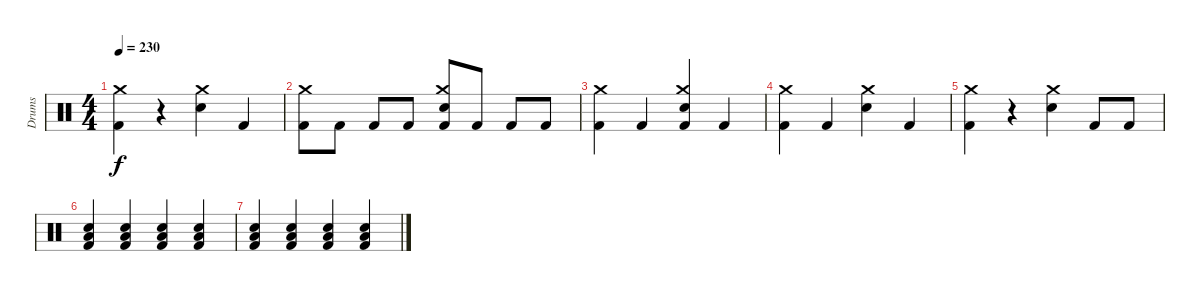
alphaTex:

\track ("Drums" "Drums") {instrument percussion}
\staff {score}
\articulation defaults
\ts (4 4)
\tempo 230
\clef neutral
\ks c
("Kick (hit) 2" "Crash medium (hit)").4{dy f} r.4 ("Electric Snare (hit)" "Crash medium (hit)").4 "Kick (hit) 2".4 |
("Kick (hit) 2" "Crash medium (hit)").8 "Kick (hit) 2".8 "Kick (hit) 2".8 "Kick (hit) 2".8 ("Kick (hit) 2" "Electric Snare (hit)" "Crash medium (hit)").8 "Kick (hit) 2".8 "Kick (hit) 2".8 "Kick (hit) 2".8 |
("Kick (hit) 2" "Crash medium (hit)").4 "Kick (hit) 2".4 ("Kick (hit) 2" "Electric Snare (hit)" "Crash medium (hit)").4 "Kick (hit) 2".4 |
("Kick (hit) 2" "Crash medium (hit)").4 "Kick (hit) 2".4 ("Electric Snare (hit)" "Crash medium (hit)").4 "Kick (hit) 2".4 |
("Kick (hit) 2" "Crash medium (hit)").4 r.4 ("Electric Snare (hit)" "Crash medium (hit)").4 "Kick (hit) 2".8 "Kick (hit) 2".8 |
("Kick (hit) 2" "Electric Snare (hit)" "Low Tom (hit)").4 ("Kick (hit) 2" "Electric Snare (hit)" "Low Tom (hit)").4 ("Kick (hit) 2" "Electric Snare (hit)" "Low Tom (hit)").4 ("Kick (hit) 2" "Electric Snare (hit)" "Low Tom (hit)").4 |
("Kick (hit) 2" "Electric Snare (hit)" "Low Tom (hit)").4 ("Kick (hit) 2" "Electric Snare (hit)" "Low Tom (hit)").4 ("Kick (hit) 2" "Electric Snare (hit)" "Low Tom (hit)").4 ("Kick (hit) 2" "Electric Snare (hit)" "Low Tom (hit)").4
